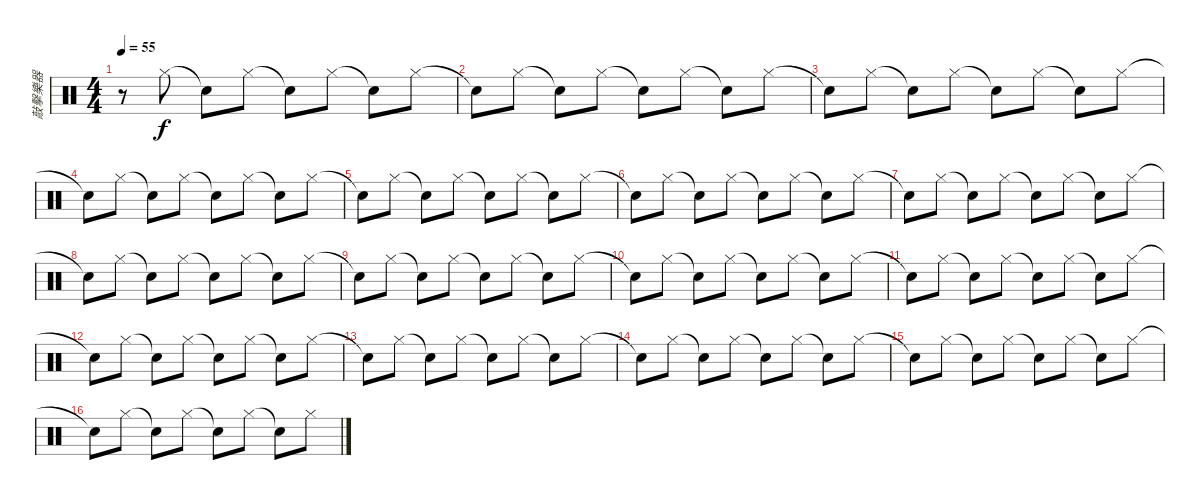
\track ("敲擊樂器" "敲擊樂器") {instrument percussion}
\staff {score}
\articulation defaults
\ts (4 4)
\tempo 55
\clef neutral
\ks c
r.8{dy f} "Hi-Hat (closed)".8 "Snare (hit)"{t}.8 "Hi-Hat (closed)".8 "Snare (hit)"{t}.8 "Hi-Hat (closed)".8 "Snare (hit)"{t}.8 "Hi-Hat (closed)".8 |
"Snare (hit)"{t}.8 "Hi-Hat (closed)".8 "Snare (hit)"{t}.8 "Hi-Hat (closed)".8 "Snare (hit)"{t}.8 "Hi-Hat (closed)".8 "Snare (hit)"{t}.8 "Hi-Hat (closed)".8 |
"Snare (hit)"{t}.8 "Hi-Hat (closed)".8 "Snare (hit)"{t}.8 "Hi-Hat (closed)".8 "Snare (hit)"{t}.8 "Hi-Hat (closed)".8 "Snare (hit)"{t}.8 "Hi-Hat (closed)".8 |
"Snare (hit)"{t}.8 "Hi-Hat (closed)".8 "Snare (hit)"{t}.8 "Hi-Hat (closed)".8 "Snare (hit)"{t}.8 "Hi-Hat (closed)".8 "Snare (hit)"{t}.8 "Hi-Hat (closed)".8 |
"Snare (hit)"{t}.8 "Hi-Hat (closed)".8 "Snare (hit)"{t}.8 "Hi-Hat (closed)".8 "Snare (hit)"{t}.8 "Hi-Hat (closed)".8 "Snare (hit)"{t}.8 "Hi-Hat (closed)".8 |
"Snare (hit)"{t}.8 "Hi-Hat (closed)".8 "Snare (hit)"{t}.8 "Hi-Hat (closed)".8 "Snare (hit)"{t}.8 "Hi-Hat (closed)".8 "Snare (hit)"{t}.8 "Hi-Hat (closed)".8 |
"Snare (hit)"{t}.8 "Hi-Hat (closed)".8 "Snare (hit)"{t}.8 "Hi-Hat (closed)".8 "Snare (hit)"{t}.8 "Hi-Hat (closed)".8 "Snare (hit)"{t}.8 "Hi-Hat (closed)".8 |
"Snare (hit)"{t}.8 "Hi-Hat (closed)".8 "Snare (hit)"{t}.8 "Hi-Hat (closed)".8 "Snare (hit)"{t}.8 "Hi-Hat (closed)".8 "Snare (hit)"{t}.8 "Hi-Hat (closed)".8 |
"Snare (hit)"{t}.8 "Hi-Hat (closed)".8 "Snare (hit)"{t}.8 "Hi-Hat (closed)".8 "Snare (hit)"{t}.8 "Hi-Hat (closed)".8 "Snare (hit)"{t}.8 "Hi-Hat (closed)".8 |
"Snare (hit)"{t}.8 "Hi-Hat (closed)".8 "Snare (hit)"{t}.8 "Hi-Hat (closed)".8 "Snare (hit)"{t}.8 "Hi-Hat (closed)".8 "Snare (hit)"{t}.8 "Hi-Hat (closed)".8 |
"Snare (hit)"{t}.8 "Hi-Hat (closed)".8 "Snare (hit)"{t}.8 "Hi-Hat (closed)".8 "Snare (hit)"{t}.8 "Hi-Hat (closed)".8 "Snare (hit)"{t}.8 "Hi-Hat (closed)".8 |
"Snare (hit)"{t}.8 "Hi-Hat (closed)".8 "Snare (hit)"{t}.8 "Hi-Hat (closed)".8 "Snare (hit)"{t}.8 "Hi-Hat (closed)".8 "Snare (hit)"{t}.8 "Hi-Hat (closed)".8 |
"Snare (hit)"{t}.8 "Hi-Hat (closed)".8 "Snare (hit)"{t}.8 "Hi-Hat (closed)".8 "Snare (hit)"{t}.8 "Hi-Hat (closed)".8 "Snare (hit)"{t}.8 "Hi-Hat (closed)".8 |
"Snare (hit)"{t}.8 "Hi-Hat (closed)".8 "Snare (hit)"{t}.8 "Hi-Hat (closed)".8 "Snare (hit)"{t}.8 "Hi-Hat (closed)".8 "Snare (hit)"{t}.8 "Hi-Hat (closed)".8 |
"Snare (hit)"{t}.8 "Hi-Hat (closed)".8 "Snare (hit)"{t}.8 "Hi-Hat (closed)".8 "Snare (hit)"{t}.8 "Hi-Hat (closed)".8 "Snare (hit)"{t}.8 "Hi-Hat (closed)".8 |
"Snare (hit)"{t}.8 "Hi-Hat (closed)".8 "Snare (hit)"{t}.8 "Hi-Hat (closed)".8 "Snare (hit)"{t}.8 "Hi-Hat (closed)".8 "Snare (hit)"{t}.8 "Hi-Hat (closed)".8
